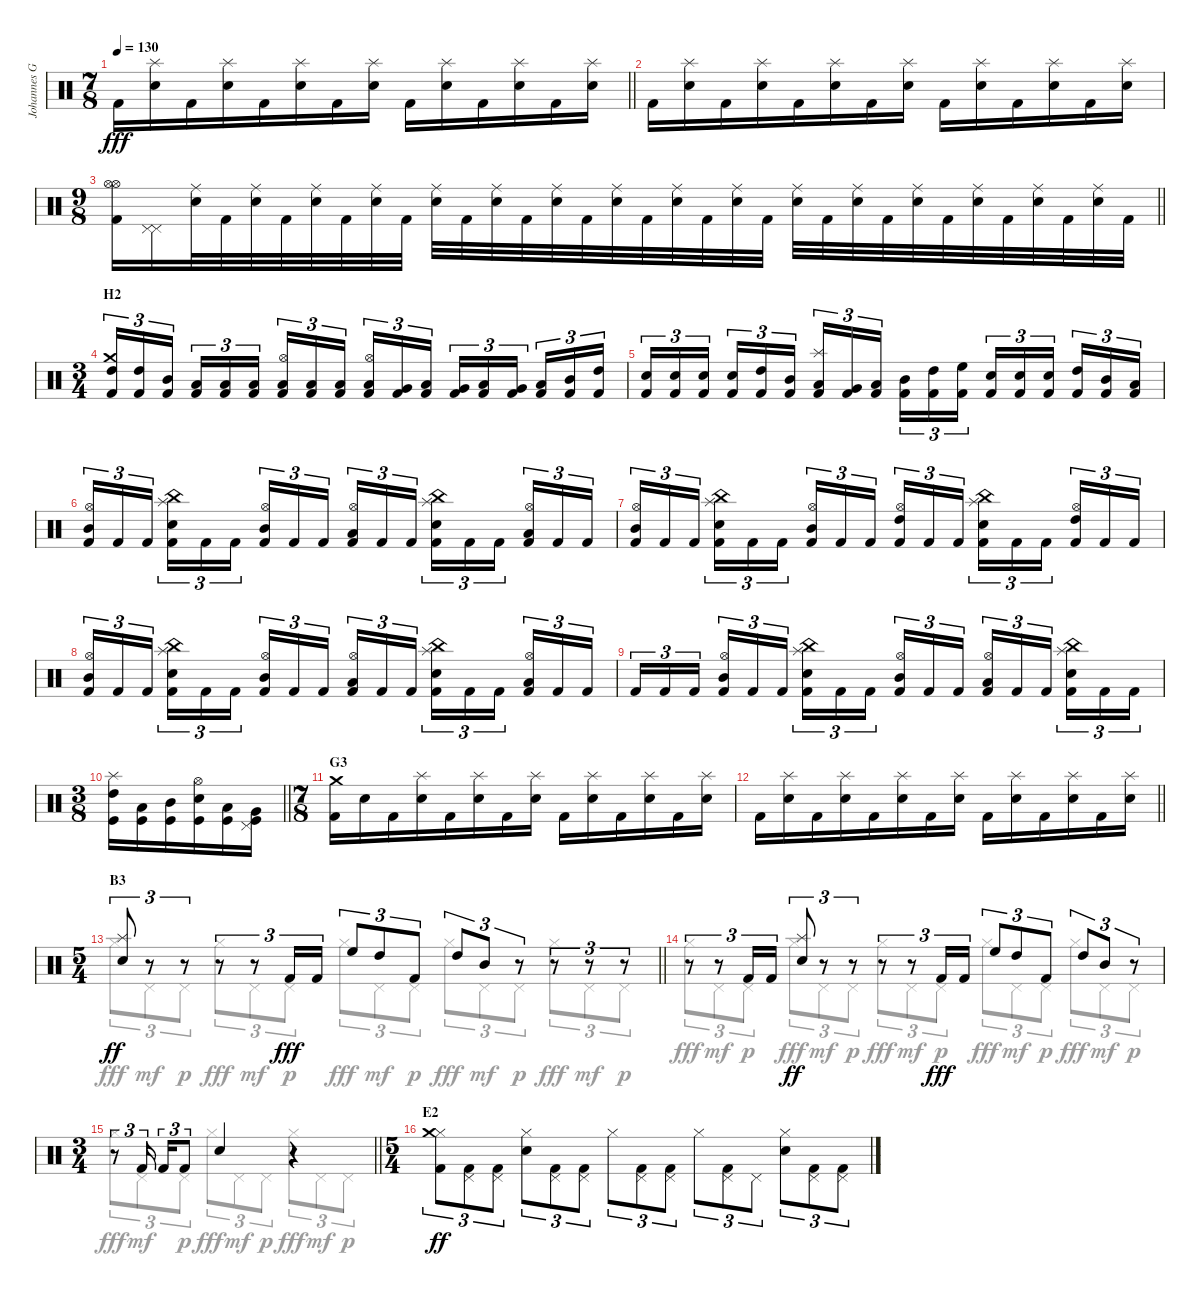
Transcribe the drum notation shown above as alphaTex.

\track ("Johannes Grossmann" "Johannes G") {instrument percussion}
\staff {score}
\articulation defaults
\voice
\ts (7 8)
\tempo 130
\clef neutral
\barLineRight lightlight
\ks c "Kick (hit) 2".16{dy fff}
("Splash (hit)" "Snare (hit) 2").16 "Kick (hit) 2".16 ("Splash (hit)" "Snare (hit) 2").16 "Kick (hit) 2".16 ("Splash (hit)" "Snare (hit) 2").16 "Kick (hit) 2".16 ("Splash (hit)" "Snare (hit) 2").16 "Kick (hit) 2".16 ("Splash (hit)" "Snare (hit) 2").16 "Kick (hit) 2".16 ("Splash (hit)" "Snare (hit) 2").16 "Kick (hit) 2".16 ("Splash (hit)" "Snare (hit) 2").16 |
"Kick (hit) 2".16 ("Splash (hit)" "Snare (hit) 2").16 "Kick (hit) 2".16 ("Splash (hit)" "Snare (hit) 2").16 "Kick (hit) 2".16 ("Splash (hit)" "Snare (hit) 2").16 "Kick (hit) 2".16 ("Splash (hit)" "Snare (hit) 2").16 "Kick (hit) 2".16 ("Splash (hit)" "Snare (hit) 2").16 "Kick (hit) 2".16 ("Splash (hit)" "Snare (hit) 2").16 "Kick (hit) 2".16 ("Splash (hit)" "Snare (hit) 2").16 |
\ts (9 8)
\barLineRight lightlight
("Hi-Hat (open)" "Hi-Hat (open)" "Kick (hit) 2").16 ("Pedal Hi-Hat (hit)" "Pedal Hi-Hat (hit)").16 ("Ride (middle)" "Snare (hit) 2").32 "Kick (hit) 2".32 ("Ride (middle)" "Snare (hit) 2").32 "Kick (hit) 2".32 ("Ride (middle)" "Snare (hit) 2").32 "Kick (hit) 2".32 ("Ride (middle)" "Snare (hit) 2").32 "Kick (hit) 2".32 ("Ride (middle)" "Snare (hit) 2").32 "Kick (hit) 2".32 ("Ride (middle)" "Snare (hit) 2").32 "Kick (hit) 2".32 ("Ride (middle)" "Snare (hit) 2").32 "Kick (hit) 2".32 ("Ride (middle)" "Snare (hit) 2").32 "Kick (hit) 2".32 ("Ride (middle)" "Snare (hit) 2").32 "Kick (hit) 2".32 ("Ride (middle)" "Snare (hit) 2").32 "Kick (hit) 2".32 ("Ride (middle)" "Snare (hit) 2").32 "Kick (hit) 2".32 ("Ride (middle)" "Snare (hit) 2").32 "Kick (hit) 2".32 ("Ride (middle)" "Snare (hit) 2").32 "Kick (hit) 2".32 ("Ride (middle)" "Snare (hit) 2").32 "Kick (hit) 2".32 ("Ride (middle)" "Snare (hit) 2").32 "Kick (hit) 2".32 ("Ride (middle)" "Snare (hit) 2").32 "Kick (hit) 2".32 |
\ts (3 4)
\section ("" "H2")
("Crash medium (hit)" "High Tom (hit)" "Kick (hit) 2").16{tu (3 2)} ("High Tom (hit)" "Kick (hit) 2").16{tu (3 2)} ("Mid Tom (hit)" "Kick (hit) 2").16{tu (3 2) beam splitsecondary} ("Low Tom (hit)" "Kick (hit) 2").16{tu (3 2)} ("Low Tom (hit)" "Kick (hit) 2").16{tu (3 2)} ("Low Tom (hit)" "Kick (hit) 2").16{tu (3 2)} ("Hi-Hat (open)" "Low Floor Tom (hit)" "Kick (hit) 2").16{tu (3 2)} ("Low Floor Tom (hit)" "Kick (hit) 2").16{tu (3 2)} ("Low Floor Tom (hit)" "Kick (hit) 2").16{tu (3 2) beam splitsecondary} ("Hi-Hat (open)" "Low Floor Tom (hit)" "Kick (hit) 2").16{tu (3 2)} ("Very Low Tom (hit)" "Kick (hit) 2").16{tu (3 2)} ("Low Tom (hit)" "Kick (hit) 2").16{tu (3 2)} ("Very Low Tom (hit)" "Kick (hit) 2").16{tu (3 2)} ("Low Tom (hit)" "Kick (hit) 2").16{tu (3 2)} ("Very Low Tom (hit)" "Kick (hit) 2").16{tu (3 2) beam splitsecondary} ("Low Tom (hit)" "Kick (hit) 2").16{tu (3 2)} ("Mid Tom (hit)" "Kick (hit) 2").16{tu (3 2)} ("High Tom (hit)" "Kick (hit) 2").16{tu (3 2)} |
("Snare (hit) 2" "Kick (hit) 2").16{tu (3 2)} ("Snare (hit) 2" "Kick (hit) 2").16{tu (3 2)} ("Snare (hit) 2" "Kick (hit) 2").16{tu (3 2) beam splitsecondary} ("Snare (hit) 2" "Kick (hit) 2").16{tu (3 2)} ("High Tom (hit)" "Kick (hit) 2").16{tu (3 2)} ("Mid Tom (hit)" "Kick (hit) 2").16{tu (3 2)} ("Splash (hit)" "Low Floor Tom (hit)" "Kick (hit) 2").16{tu (3 2)} ("Very Low Tom (hit)" "Kick (hit) 2").16{tu (3 2)} ("Low Tom (hit)" "Kick (hit) 2").16{tu (3 2) beam splitsecondary} ("Mid Tom (hit)" "Kick (hit) 2").16{tu (3 2)} ("High Tom (hit)" "Kick (hit) 2").16{tu (3 2)} ("High Floor Tom (hit)" "Kick (hit) 2").16{tu (3 2)} ("Snare (hit) 2" "Kick (hit) 2").16{tu (3 2)} ("Snare (hit) 2" "Kick (hit) 2").16{tu (3 2)} ("Snare (hit) 2" "Kick (hit) 2").16{tu (3 2) beam splitsecondary} ("High Tom (hit)" "Kick (hit) 2").16{tu (3 2)} ("Mid Tom (hit)" "Kick (hit) 2").16{tu (3 2)} ("Low Tom (hit)" "Kick (hit) 2").16{tu (3 2)} |
("Hi-Hat (open)" "Mid Tom (hit)" "Kick (hit) 2").16{tu (3 2)} "Kick (hit) 2".16{tu (3 2)} "Kick (hit) 2".16{tu (3 2) beam splitsecondary} ("China (hit)" "Splash (hit)" "Snare (hit) 2" "Kick (hit) 2").16{tu (3 2)} "Kick (hit) 2".16{tu (3 2)} "Kick (hit) 2".16{tu (3 2)} ("Hi-Hat (open)" "Mid Tom (hit)" "Kick (hit) 2").16{tu (3 2)} "Kick (hit) 2".16{tu (3 2)} "Kick (hit) 2".16{tu (3 2) beam splitsecondary} ("Hi-Hat (open)" "Low Tom (hit)" "Kick (hit) 2").16{tu (3 2)} "Kick (hit) 2".16{tu (3 2)} "Kick (hit) 2".16{tu (3 2)} ("China (hit)" "Splash (hit)" "Snare (hit) 2" "Kick (hit) 2").16{tu (3 2)} "Kick (hit) 2".16{tu (3 2)} "Kick (hit) 2".16{tu (3 2) beam splitsecondary} ("Hi-Hat (open)" "Low Tom (hit)" "Kick (hit) 2").16{tu (3 2)} "Kick (hit) 2".16{tu (3 2)} "Kick (hit) 2".16{tu (3 2)} |
("Hi-Hat (open)" "Mid Tom (hit)" "Kick (hit) 2").16{tu (3 2)} "Kick (hit) 2".16{tu (3 2)} "Kick (hit) 2".16{tu (3 2) beam splitsecondary} ("China (hit)" "Splash (hit)" "Snare (hit) 2" "Kick (hit) 2").16{tu (3 2)} "Kick (hit) 2".16{tu (3 2)} "Kick (hit) 2".16{tu (3 2)} ("Hi-Hat (open)" "Mid Tom (hit)" "Kick (hit) 2").16{tu (3 2)} "Kick (hit) 2".16{tu (3 2)} "Kick (hit) 2".16{tu (3 2) beam splitsecondary} ("Hi-Hat (open)" "High Tom (hit)" "Kick (hit) 2").16{tu (3 2)} "Kick (hit) 2".16{tu (3 2)} "Kick (hit) 2".16{tu (3 2)} ("China (hit)" "Splash (hit)" "Snare (hit) 2" "Kick (hit) 2").16{tu (3 2)} "Kick (hit) 2".16{tu (3 2)} "Kick (hit) 2".16{tu (3 2) beam splitsecondary} ("Hi-Hat (open)" "High Tom (hit)" "Kick (hit) 2").16{tu (3 2)} "Kick (hit) 2".16{tu (3 2)} "Kick (hit) 2".16{tu (3 2)} |
("Hi-Hat (open)" "Mid Tom (hit)" "Kick (hit) 2").16{tu (3 2)} "Kick (hit) 2".16{tu (3 2)} "Kick (hit) 2".16{tu (3 2) beam splitsecondary} ("China (hit)" "Splash (hit)" "Snare (hit) 2" "Kick (hit) 2").16{tu (3 2)} "Kick (hit) 2".16{tu (3 2)} "Kick (hit) 2".16{tu (3 2)} ("Hi-Hat (open)" "Mid Tom (hit)" "Kick (hit) 2").16{tu (3 2)} "Kick (hit) 2".16{tu (3 2)} "Kick (hit) 2".16{tu (3 2) beam splitsecondary} ("Hi-Hat (open)" "Low Tom (hit)" "Kick (hit) 2").16{tu (3 2)} "Kick (hit) 2".16{tu (3 2)} "Kick (hit) 2".16{tu (3 2)} ("China (hit)" "Splash (hit)" "Snare (hit) 2" "Kick (hit) 2").16{tu (3 2)} "Kick (hit) 2".16{tu (3 2)} "Kick (hit) 2".16{tu (3 2) beam splitsecondary} ("Hi-Hat (open)" "Low Tom (hit)" "Kick (hit) 2").16{tu (3 2)} "Kick (hit) 2".16{tu (3 2)} "Kick (hit) 2".16{tu (3 2)} |
"Kick (hit) 2".16{tu (3 2)} "Kick (hit) 2".16{tu (3 2)} "Kick (hit) 2".16{tu (3 2) beam splitsecondary} ("Hi-Hat (open)" "Mid Tom (hit)" "Kick (hit) 2").16{tu (3 2)} "Kick (hit) 2".16{tu (3 2)} "Kick (hit) 2".16{tu (3 2)} ("China (hit)" "Splash (hit)" "Snare (hit) 2" "Kick (hit) 2").16{tu (3 2)} "Kick (hit) 2".16{tu (3 2)} "Kick (hit) 2".16{tu (3 2) beam splitsecondary} ("Hi-Hat (open)" "Mid Tom (hit)" "Kick (hit) 2").16{tu (3 2)} "Kick (hit) 2".16{tu (3 2)} "Kick (hit) 2".16{tu (3 2)} ("Hi-Hat (open)" "Low Tom (hit)" "Kick (hit) 2").16{tu (3 2)} "Kick (hit) 2".16{tu (3 2)} "Kick (hit) 2".16{tu (3 2) beam splitsecondary} ("China (hit)" "Splash (hit)" "Snare (hit) 2" "Kick (hit) 2").16{tu (3 2)} "Kick (hit) 2".16{tu (3 2)} "Kick (hit) 2".16{tu (3 2)} |
\ts (3 8)
\barLineRight lightlight
("Splash (hit)" "High Tom (hit)" "Kick (hit)").16 ("Low Tom (hit)" "Kick (hit)").16 ("Mid Tom (hit)" "Kick (hit)").16 ("Hi-Hat (open)" "Snare (hit) 2" "Kick (hit)").16 ("Low Tom (hit)" "Kick (hit)").16 ("Pedal Hi-Hat (hit)" "Very Low Tom (hit)" "Kick (hit)").16 |
\ts (7 8)
\section ("" "G3")
("Crash medium (hit)" "Kick (hit) 2").16 "Snare (hit) 2".16 "Kick (hit) 2".16 ("Splash (hit)" "Snare (hit) 2").16 "Kick (hit) 2".16 ("Splash (hit)" "Snare (hit) 2").16 "Kick (hit) 2".16 ("Splash (hit)" "Snare (hit) 2").16 "Kick (hit) 2".16 ("Splash (hit)" "Snare (hit) 2").16 "Kick (hit) 2".16 ("Splash (hit)" "Snare (hit) 2").16 "Kick (hit) 2".16 ("Splash (hit)" "Snare (hit) 2").16 |
\barLineRight lightlight "Kick (hit) 2".16
("Splash (hit)" "Snare (hit) 2").16 "Kick (hit) 2".16 ("Splash (hit)" "Snare (hit) 2").16 "Kick (hit) 2".16 ("Splash (hit)" "Snare (hit) 2").16 "Kick (hit) 2".16 ("Splash (hit)" "Snare (hit) 2").16 "Kick (hit) 2".16 ("Splash (hit)" "Snare (hit) 2").16 "Kick (hit) 2".16 ("Splash (hit)" "Snare (hit) 2").16 "Kick (hit) 2".16 ("Splash (hit)" "Snare (hit) 2").16 |
\ts (5 4)
\section ("" "B3")
\barLineRight lightlight
("Splash (hit)" "Snare (hit) 2").8{tu (3 2) dy ff} r.8{tu (3 2)} r.8{tu (3 2)} r.8{tu (3 2)} r.8{tu (3 2)} "Kick (hit) 2".16{tu (3 2) dy fff} "Kick (hit) 2".16{tu (3 2)} "High Floor Tom (hit)".8{tu (3 2)} "High Tom (hit)".8{tu (3 2)} "Kick (hit) 2".8{tu (3 2)} "High Tom (hit)".8{tu (3 2)} "Mid Tom (hit)".8{tu (3 2)} r.8{tu (3 2)} r.8{tu (3 2)} r.8{tu (3 2)} r.8{tu (3 2)} |
r.8{tu (3 2)} r.8{tu (3 2)} "Kick (hit) 2".16{tu (3 2)} "Kick (hit) 2".16{tu (3 2)} ("Splash (hit)" "Snare (hit) 2").8{tu (3 2) dy ff} r.8{tu (3 2)} r.8{tu (3 2)} r.8{tu (3 2)} r.8{tu (3 2)} "Kick (hit) 2".16{tu (3 2) dy fff} "Kick (hit) 2".16{tu (3 2)} "High Floor Tom (hit)".8{tu (3 2)} "High Tom (hit)".8{tu (3 2)} "Kick (hit) 2".8{tu (3 2)} "High Tom (hit)".8{tu (3 2)} "Mid Tom (hit)".8{tu (3 2)} r.8{tu (3 2)} |
\ts (3 4)
\barLineRight lightlight
r.8{tu (3 2)} "Kick (hit) 2".16{tu (3 2) beam splitsecondary} "Kick (hit) 2".16{tu (3 2)} "Kick (hit) 2".8{tu (3 2)} "Snare (hit) 2".4 r.4 |
\ts (5 4)
\section ("" "E2")
("Hi-Hat (closed)" "Crash medium (hit)" "Kick (hit) 2").8{tu (3 2) dy ff} ("Pedal Hi-Hat (hit)" "Kick (hit) 2").8{tu (3 2)} ("Pedal Hi-Hat (hit)" "Kick (hit) 2").8{tu (3 2)} ("Hi-Hat (closed)" "Snare (hit) 2").8{tu (3 2)} ("Pedal Hi-Hat (hit)" "Kick (hit) 2").8{tu (3 2)} ("Pedal Hi-Hat (hit)" "Kick (hit) 2").8{tu (3 2)} "Hi-Hat (closed)".8{tu (3 2)} ("Pedal Hi-Hat (hit)" "Kick (hit) 2").8{tu (3 2)} ("Pedal Hi-Hat (hit)" "Kick (hit) 2").8{tu (3 2)} "Hi-Hat (closed)".8{tu (3 2)} ("Pedal Hi-Hat (hit)" "Kick (hit) 2").8{tu (3 2)} "Pedal Hi-Hat (hit)".8{tu (3 2)} ("Hi-Hat (closed)" "Snare (hit) 2").8{tu (3 2)} ("Pedal Hi-Hat (hit)" "Kick (hit) 2").8{tu (3 2)} ("Pedal Hi-Hat (hit)" "Kick (hit) 2").8{tu (3 2)}
\voice
\clef neutral
\ottava regular
\simile none
\barLineRight lightlight
\ks c
|
|
\barLineRight lightlight
|
|
|
|
|
|
|
\barLineRight lightlight
|
|
\barLineRight lightlight
|
\barLineRight lightlight "Hi-Hat (closed)".8{tu (3 2) dy fff} "Pedal Hi-Hat (hit)".8{tu (3 2) dy mf} "Pedal Hi-Hat (hit)".8{tu (3 2) dy p} "Hi-Hat (closed)".8{tu (3 2) dy fff} "Pedal Hi-Hat (hit)".8{tu (3 2) dy mf} "Pedal Hi-Hat (hit)".8{tu (3 2) dy p} "Hi-Hat (closed)".8{tu (3 2) dy fff} "Pedal Hi-Hat (hit)".8{tu (3 2) dy mf} "Pedal Hi-Hat (hit)".8{tu (3 2) dy p} "Hi-Hat (closed)".8{tu (3 2) dy fff} "Pedal Hi-Hat (hit)".8{tu (3 2) dy mf} "Pedal Hi-Hat (hit)".8{tu (3 2) dy p} "Hi-Hat (closed)".8{tu (3 2) dy fff} "Pedal Hi-Hat (hit)".8{tu (3 2) dy mf} "Pedal Hi-Hat (hit)".8{tu (3 2) dy p}
|
"Hi-Hat (closed)".8{tu (3 2) dy fff} "Pedal Hi-Hat (hit)".8{tu (3 2) dy mf} "Pedal Hi-Hat (hit)".8{tu (3 2) dy p} "Hi-Hat (closed)".8{tu (3 2) dy fff} "Pedal Hi-Hat (hit)".8{tu (3 2) dy mf} "Pedal Hi-Hat (hit)".8{tu (3 2) dy p} "Hi-Hat (closed)".8{tu (3 2) dy fff} "Pedal Hi-Hat (hit)".8{tu (3 2) dy mf} "Pedal Hi-Hat (hit)".8{tu (3 2) dy p} "Hi-Hat (closed)".8{tu (3 2) dy fff} "Pedal Hi-Hat (hit)".8{tu (3 2) dy mf} "Pedal Hi-Hat (hit)".8{tu (3 2) dy p} "Hi-Hat (closed)".8{tu (3 2) dy fff} "Pedal Hi-Hat (hit)".8{tu (3 2) dy mf} "Pedal Hi-Hat (hit)".8{tu (3 2) dy p} |
\barLineRight lightlight "Hi-Hat (closed)".8{tu (3 2) dy fff} "Pedal Hi-Hat (hit)".8{tu (3 2) dy mf} "Pedal Hi-Hat (hit)".8{tu (3 2) dy p} "Hi-Hat (closed)".8{tu (3 2) dy fff} "Pedal Hi-Hat (hit)".8{tu (3 2) dy mf} "Pedal Hi-Hat (hit)".8{tu (3 2) dy p} "Hi-Hat (closed)".8{tu (3 2) dy fff} "Pedal Hi-Hat (hit)".8{tu (3 2) dy mf} "Pedal Hi-Hat (hit)".8{tu (3 2) dy p}
|
